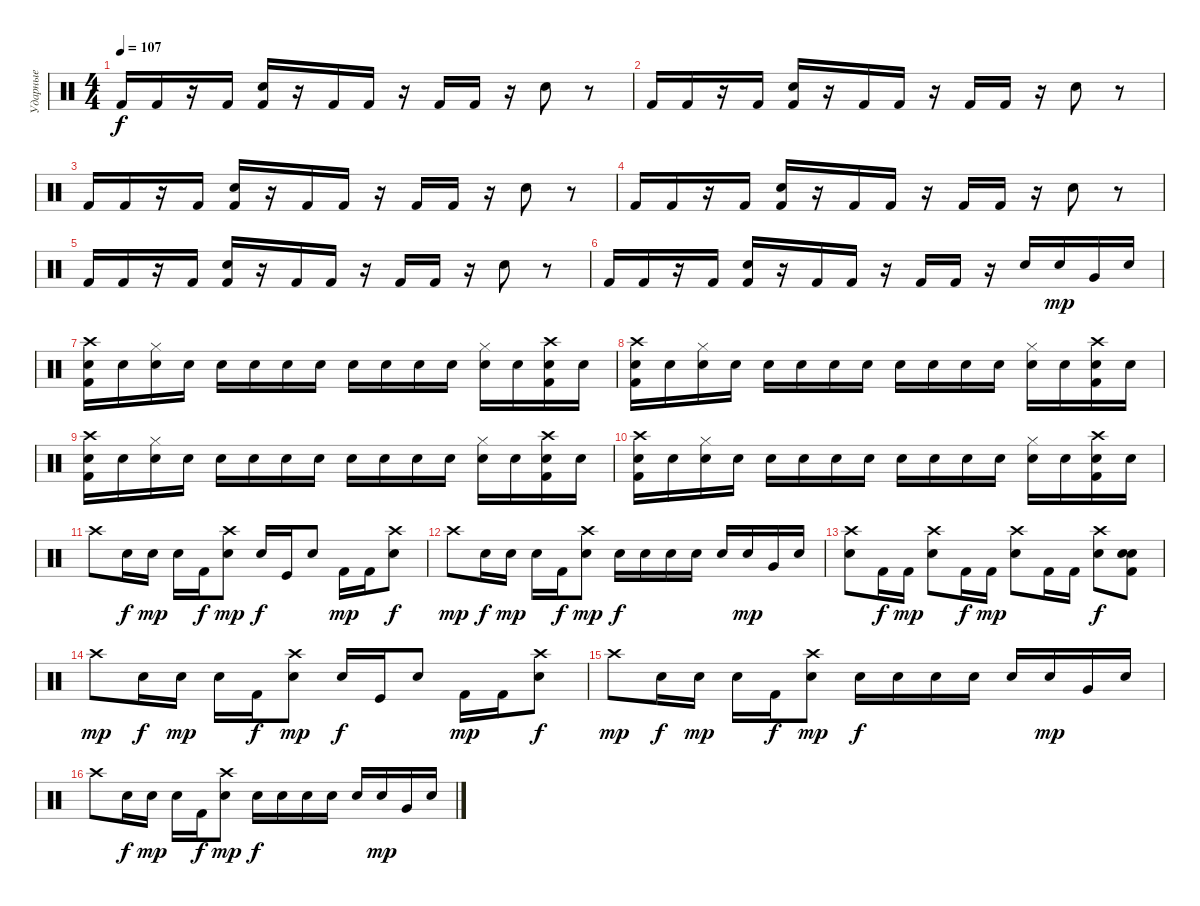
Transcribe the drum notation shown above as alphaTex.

\track ("Ударные" "Ударные") {instrument percussion}
\staff {score}
\articulation defaults
\ts (4 4)
\tempo 107
\clef neutral
\ks c "Kick (hit) 2".16{dy f} "Kick (hit) 2".16
r.16 "Kick (hit) 2".16 ("Snare (hit) 2" "Kick (hit) 2").16 r.16 "Kick (hit) 2".16 "Kick (hit) 2".16 r.16 "Kick (hit) 2".16 "Kick (hit) 2".16 r.16 "Snare (hit) 2".8 r.8 |
"Kick (hit) 2".16 "Kick (hit) 2".16 r.16 "Kick (hit) 2".16 ("Snare (hit) 2" "Kick (hit) 2").16 r.16 "Kick (hit) 2".16 "Kick (hit) 2".16 r.16 "Kick (hit) 2".16 "Kick (hit) 2".16 r.16 "Snare (hit) 2".8 r.8 |
"Kick (hit) 2".16 "Kick (hit) 2".16 r.16 "Kick (hit) 2".16 ("Snare (hit) 2" "Kick (hit) 2").16 r.16 "Kick (hit) 2".16 "Kick (hit) 2".16 r.16 "Kick (hit) 2".16 "Kick (hit) 2".16 r.16 "Snare (hit) 2".8 r.8 |
"Kick (hit) 2".16 "Kick (hit) 2".16 r.16 "Kick (hit) 2".16 ("Snare (hit) 2" "Kick (hit) 2").16 r.16 "Kick (hit) 2".16 "Kick (hit) 2".16 r.16 "Kick (hit) 2".16 "Kick (hit) 2".16 r.16 "Snare (hit) 2".8 r.8 |
"Kick (hit) 2".16 "Kick (hit) 2".16 r.16 "Kick (hit) 2".16 ("Snare (hit) 2" "Kick (hit) 2").16 r.16 "Kick (hit) 2".16 "Kick (hit) 2".16 r.16 "Kick (hit) 2".16 "Kick (hit) 2".16 r.16 "Snare (hit) 2".8 r.8 |
"Kick (hit) 2".16 "Kick (hit) 2".16 r.16 "Kick (hit) 2".16 ("Snare (hit) 2" "Kick (hit) 2").16 r.16 "Kick (hit) 2".16 "Kick (hit) 2".16 r.16 "Kick (hit) 2".16 "Kick (hit) 2".16 r.16 "Snare (hit) 2".16 "Electric Snare (hit)".16{dy mp} "Very Low Tom (hit)".16 "Electric Snare (hit)".16 |
("Electric Snare (hit)" "Kick (hit) 2" "Crash high (hit)").16 "Electric Snare (hit)".16 ("Electric Snare (hit)" "Hi-Hat (closed)").16 "Electric Snare (hit)".16 "Electric Snare (hit)".16 "Electric Snare (hit)".16 "Electric Snare (hit)".16 "Electric Snare (hit)".16 "Electric Snare (hit)".16 "Electric Snare (hit)".16 "Electric Snare (hit)".16 "Electric Snare (hit)".16 ("Electric Snare (hit)" "Hi-Hat (closed)").16 "Electric Snare (hit)".16 ("Electric Snare (hit)" "Crash high (hit)" "Kick (hit) 2").16 "Electric Snare (hit)".16 |
("Electric Snare (hit)" "Kick (hit) 2" "Crash high (hit)").16 "Electric Snare (hit)".16 ("Electric Snare (hit)" "Hi-Hat (closed)").16 "Electric Snare (hit)".16 "Electric Snare (hit)".16 "Electric Snare (hit)".16 "Electric Snare (hit)".16 "Electric Snare (hit)".16 "Electric Snare (hit)".16 "Electric Snare (hit)".16 "Electric Snare (hit)".16 "Electric Snare (hit)".16 ("Electric Snare (hit)" "Hi-Hat (closed)").16 "Electric Snare (hit)".16 ("Electric Snare (hit)" "Kick (hit) 2" "Crash high (hit)").16 "Electric Snare (hit)".16 |
("Electric Snare (hit)" "Kick (hit) 2" "Crash high (hit)").16 "Electric Snare (hit)".16 ("Electric Snare (hit)" "Hi-Hat (closed)").16 "Electric Snare (hit)".16 "Electric Snare (hit)".16 "Electric Snare (hit)".16 "Electric Snare (hit)".16 "Electric Snare (hit)".16 "Electric Snare (hit)".16 "Electric Snare (hit)".16 "Electric Snare (hit)".16 "Electric Snare (hit)".16 ("Electric Snare (hit)" "Hi-Hat (closed)").16 "Electric Snare (hit)".16 ("Electric Snare (hit)" "Crash high (hit)" "Kick (hit) 2").16 "Electric Snare (hit)".16 |
("Electric Snare (hit)" "Kick (hit) 2" "Crash high (hit)").16 "Electric Snare (hit)".16 ("Electric Snare (hit)" "Hi-Hat (closed)").16 "Electric Snare (hit)".16 "Electric Snare (hit)".16 "Electric Snare (hit)".16 "Electric Snare (hit)".16 "Electric Snare (hit)".16 "Electric Snare (hit)".16 "Electric Snare (hit)".16 "Electric Snare (hit)".16 "Electric Snare (hit)".16 ("Electric Snare (hit)" "Hi-Hat (closed)").16 "Electric Snare (hit)".16 ("Electric Snare (hit)" "Crash high (hit)" "Kick (hit) 2").16 "Electric Snare (hit)".16 |
"Crash high (hit)".8 "Electric Snare (hit)".16{dy f} "Electric Snare (hit)".16{dy mp} "Electric Snare (hit)".16 "Kick (hit) 2".16{dy f} ("Crash high (hit)" "Snare (hit) 2").8{dy mp} "Electric Snare (hit)".16{dy f} "Kick (hit)".16 "Snare (hit) 2".8 "Kick (hit) 2".16{dy mp} "Kick (hit) 2".16 ("Crash high (hit)" "Electric Snare (hit)").8{dy f} |
"Crash high (hit)".8{dy mp} "Electric Snare (hit)".16{dy f} "Electric Snare (hit)".16{dy mp} "Electric Snare (hit)".16 "Kick (hit) 2".16{dy f} ("Crash high (hit)" "Snare (hit) 2").8{dy mp} "Electric Snare (hit)".16{dy f} "Electric Snare (hit)".16 "Electric Snare (hit)".16 "Electric Snare (hit)".16 "Snare (hit) 2".16 "Electric Snare (hit)".16{dy mp} "Very Low Tom (hit)".16 "Electric Snare (hit)".16 |
("Crash high (hit)" "Snare (hit) 2").8 "Kick (hit) 2".16{dy f} "Kick (hit) 2".16{dy mp} ("Crash high (hit)" "Snare (hit) 2").8 "Kick (hit) 2".16{dy f} "Kick (hit) 2".16{dy mp} ("Crash high (hit)" "Snare (hit) 2").8 "Kick (hit) 2".16 "Kick (hit) 2".16 ("Crash high (hit)" "Electric Snare (hit)").8{dy f} ("Electric Snare (hit)" "Snare (hit) 2" "Kick (hit) 2").8 |
"Crash high (hit)".8{dy mp} "Electric Snare (hit)".16{dy f} "Electric Snare (hit)".16{dy mp} "Electric Snare (hit)".16 "Kick (hit) 2".16{dy f} ("Crash high (hit)" "Snare (hit) 2").8{dy mp} "Electric Snare (hit)".16{dy f} "Kick (hit)".16 "Snare (hit) 2".8 "Kick (hit) 2".16{dy mp} "Kick (hit) 2".16 ("Crash high (hit)" "Electric Snare (hit)").8{dy f} |
"Crash high (hit)".8{dy mp} "Electric Snare (hit)".16{dy f} "Electric Snare (hit)".16{dy mp} "Electric Snare (hit)".16 "Kick (hit) 2".16{dy f} ("Crash high (hit)" "Snare (hit) 2").8{dy mp} "Electric Snare (hit)".16{dy f} "Electric Snare (hit)".16 "Electric Snare (hit)".16 "Electric Snare (hit)".16 "Snare (hit) 2".16 "Electric Snare (hit)".16{dy mp} "Very Low Tom (hit)".16 "Electric Snare (hit)".16 |
"Crash high (hit)".8 "Electric Snare (hit)".16{dy f} "Electric Snare (hit)".16{dy mp} "Electric Snare (hit)".16 "Kick (hit) 2".16{dy f} ("Crash high (hit)" "Snare (hit) 2").8{dy mp} "Electric Snare (hit)".16{dy f} "Electric Snare (hit)".16 "Electric Snare (hit)".16 "Electric Snare (hit)".16 "Snare (hit) 2".16 "Electric Snare (hit)".16{dy mp} "Very Low Tom (hit)".16 "Electric Snare (hit)".16
